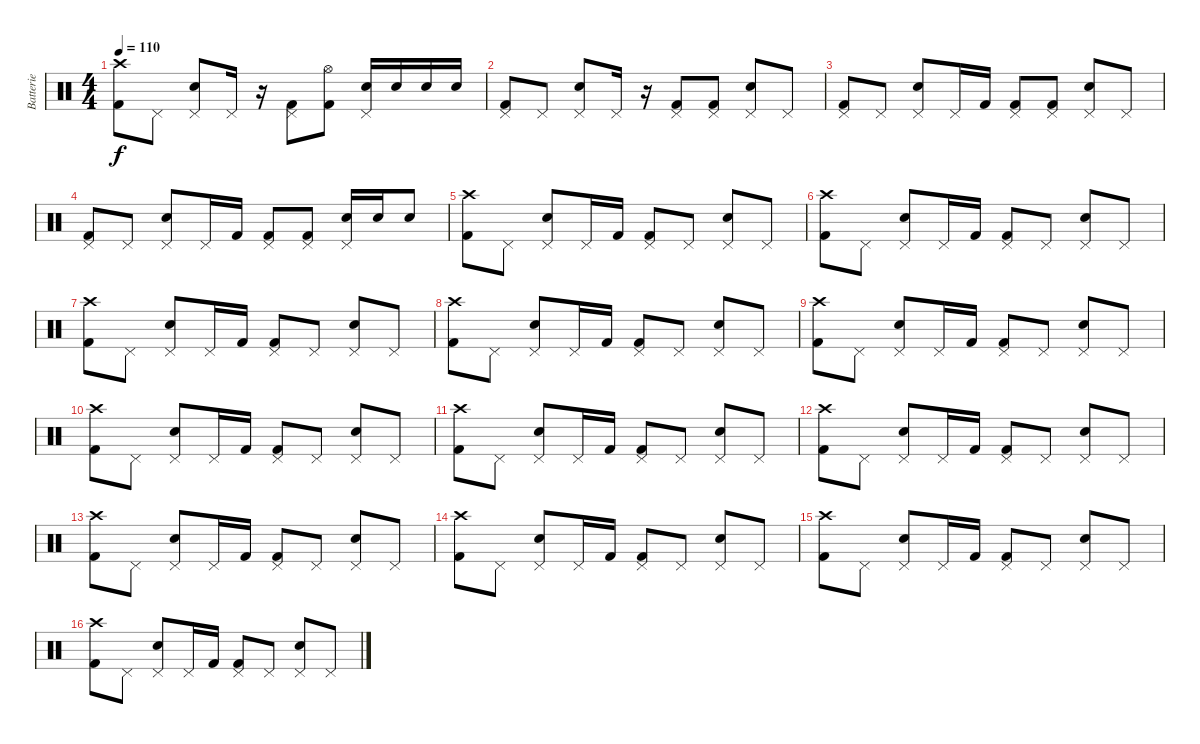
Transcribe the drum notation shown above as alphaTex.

\track ("Batterie" "Batterie") {instrument percussion}
\staff {score}
\articulation defaults
\ts (4 4)
\tempo 110
\clef neutral
\ks c
("Crash high (hit)" "Kick (hit) 2").8{dy f} "Pedal Hi-Hat (hit)".8 ("Pedal Hi-Hat (hit)" "Electric Snare (hit)").8 "Pedal Hi-Hat (hit)".16 r.16 ("Pedal Hi-Hat (hit)" "Kick (hit) 2").8 ("Hi-Hat (open)" "Kick (hit) 2").8 ("Pedal Hi-Hat (hit)" "Electric Snare (hit)").16 "Electric Snare (hit)".16 "Electric Snare (hit)".16 "Electric Snare (hit)".16 |
("Pedal Hi-Hat (hit)" "Kick (hit) 2").8 "Pedal Hi-Hat (hit)".8 ("Pedal Hi-Hat (hit)" "Electric Snare (hit)").8 "Pedal Hi-Hat (hit)".16 r.16 ("Pedal Hi-Hat (hit)" "Kick (hit) 2").8 ("Pedal Hi-Hat (hit)" "Kick (hit) 2").8 ("Pedal Hi-Hat (hit)" "Electric Snare (hit)").8 "Pedal Hi-Hat (hit)".8 |
("Pedal Hi-Hat (hit)" "Kick (hit) 2").8 "Pedal Hi-Hat (hit)".8 ("Pedal Hi-Hat (hit)" "Electric Snare (hit)").8 "Pedal Hi-Hat (hit)".16 "Kick (hit) 2".16 ("Pedal Hi-Hat (hit)" "Kick (hit) 2").8 ("Pedal Hi-Hat (hit)" "Kick (hit) 2").8 ("Pedal Hi-Hat (hit)" "Electric Snare (hit)").8 "Pedal Hi-Hat (hit)".8 |
("Pedal Hi-Hat (hit)" "Kick (hit) 2").8 "Pedal Hi-Hat (hit)".8 ("Pedal Hi-Hat (hit)" "Electric Snare (hit)").8 "Pedal Hi-Hat (hit)".16 "Kick (hit) 2".16 ("Pedal Hi-Hat (hit)" "Kick (hit) 2").8 ("Pedal Hi-Hat (hit)" "Kick (hit) 2").8 ("Pedal Hi-Hat (hit)" "Electric Snare (hit)").16 "Electric Snare (hit)".16 "Electric Snare (hit)".8 |
("Crash high (hit)" "Kick (hit) 2").8 "Pedal Hi-Hat (hit)".8 ("Pedal Hi-Hat (hit)" "Electric Snare (hit)").8 "Pedal Hi-Hat (hit)".16 "Kick (hit) 2".16 ("Pedal Hi-Hat (hit)" "Kick (hit) 2").8 "Pedal Hi-Hat (hit)".8 ("Pedal Hi-Hat (hit)" "Electric Snare (hit)").8 "Pedal Hi-Hat (hit)".8 |
("Crash high (hit)" "Kick (hit) 2").8 "Pedal Hi-Hat (hit)".8 ("Pedal Hi-Hat (hit)" "Electric Snare (hit)").8 "Pedal Hi-Hat (hit)".16 "Kick (hit) 2".16 ("Pedal Hi-Hat (hit)" "Kick (hit) 2").8 "Pedal Hi-Hat (hit)".8 ("Pedal Hi-Hat (hit)" "Electric Snare (hit)").8 "Pedal Hi-Hat (hit)".8 |
("Crash high (hit)" "Kick (hit) 2").8 "Pedal Hi-Hat (hit)".8 ("Pedal Hi-Hat (hit)" "Electric Snare (hit)").8 "Pedal Hi-Hat (hit)".16 "Kick (hit) 2".16 ("Pedal Hi-Hat (hit)" "Kick (hit) 2").8 "Pedal Hi-Hat (hit)".8 ("Pedal Hi-Hat (hit)" "Electric Snare (hit)").8 "Pedal Hi-Hat (hit)".8 |
("Crash high (hit)" "Kick (hit) 2").8 "Pedal Hi-Hat (hit)".8 ("Pedal Hi-Hat (hit)" "Electric Snare (hit)").8 "Pedal Hi-Hat (hit)".16 "Kick (hit) 2".16 ("Pedal Hi-Hat (hit)" "Kick (hit) 2").8 "Pedal Hi-Hat (hit)".8 ("Pedal Hi-Hat (hit)" "Electric Snare (hit)").8 "Pedal Hi-Hat (hit)".8 |
("Crash high (hit)" "Kick (hit) 2").8 "Pedal Hi-Hat (hit)".8 ("Pedal Hi-Hat (hit)" "Electric Snare (hit)").8 "Pedal Hi-Hat (hit)".16 "Kick (hit) 2".16 ("Pedal Hi-Hat (hit)" "Kick (hit) 2").8 "Pedal Hi-Hat (hit)".8 ("Pedal Hi-Hat (hit)" "Electric Snare (hit)").8 "Pedal Hi-Hat (hit)".8 |
("Crash high (hit)" "Kick (hit) 2").8 "Pedal Hi-Hat (hit)".8 ("Pedal Hi-Hat (hit)" "Electric Snare (hit)").8 "Pedal Hi-Hat (hit)".16 "Kick (hit) 2".16 ("Pedal Hi-Hat (hit)" "Kick (hit) 2").8 "Pedal Hi-Hat (hit)".8 ("Pedal Hi-Hat (hit)" "Electric Snare (hit)").8 "Pedal Hi-Hat (hit)".8 |
("Crash high (hit)" "Kick (hit) 2").8 "Pedal Hi-Hat (hit)".8 ("Pedal Hi-Hat (hit)" "Electric Snare (hit)").8 "Pedal Hi-Hat (hit)".16 "Kick (hit) 2".16 ("Pedal Hi-Hat (hit)" "Kick (hit) 2").8 "Pedal Hi-Hat (hit)".8 ("Pedal Hi-Hat (hit)" "Electric Snare (hit)").8 "Pedal Hi-Hat (hit)".8 |
("Crash high (hit)" "Kick (hit) 2").8 "Pedal Hi-Hat (hit)".8 ("Pedal Hi-Hat (hit)" "Electric Snare (hit)").8 "Pedal Hi-Hat (hit)".16 "Kick (hit) 2".16 ("Pedal Hi-Hat (hit)" "Kick (hit) 2").8 "Pedal Hi-Hat (hit)".8 ("Pedal Hi-Hat (hit)" "Electric Snare (hit)").8 "Pedal Hi-Hat (hit)".8 |
("Crash high (hit)" "Kick (hit) 2").8 "Pedal Hi-Hat (hit)".8 ("Pedal Hi-Hat (hit)" "Electric Snare (hit)").8 "Pedal Hi-Hat (hit)".16 "Kick (hit) 2".16 ("Pedal Hi-Hat (hit)" "Kick (hit) 2").8 "Pedal Hi-Hat (hit)".8 ("Pedal Hi-Hat (hit)" "Electric Snare (hit)").8 "Pedal Hi-Hat (hit)".8 |
("Crash high (hit)" "Kick (hit) 2").8 "Pedal Hi-Hat (hit)".8 ("Pedal Hi-Hat (hit)" "Electric Snare (hit)").8 "Pedal Hi-Hat (hit)".16 "Kick (hit) 2".16 ("Pedal Hi-Hat (hit)" "Kick (hit) 2").8 "Pedal Hi-Hat (hit)".8 ("Pedal Hi-Hat (hit)" "Electric Snare (hit)").8 "Pedal Hi-Hat (hit)".8 |
("Crash high (hit)" "Kick (hit) 2").8 "Pedal Hi-Hat (hit)".8 ("Pedal Hi-Hat (hit)" "Electric Snare (hit)").8 "Pedal Hi-Hat (hit)".16 "Kick (hit) 2".16 ("Pedal Hi-Hat (hit)" "Kick (hit) 2").8 "Pedal Hi-Hat (hit)".8 ("Pedal Hi-Hat (hit)" "Electric Snare (hit)").8 "Pedal Hi-Hat (hit)".8 |
("Crash high (hit)" "Kick (hit) 2").8 "Pedal Hi-Hat (hit)".8 ("Pedal Hi-Hat (hit)" "Electric Snare (hit)").8 "Pedal Hi-Hat (hit)".16 "Kick (hit) 2".16 ("Pedal Hi-Hat (hit)" "Kick (hit) 2").8 "Pedal Hi-Hat (hit)".8 ("Pedal Hi-Hat (hit)" "Electric Snare (hit)").8 "Pedal Hi-Hat (hit)".8
